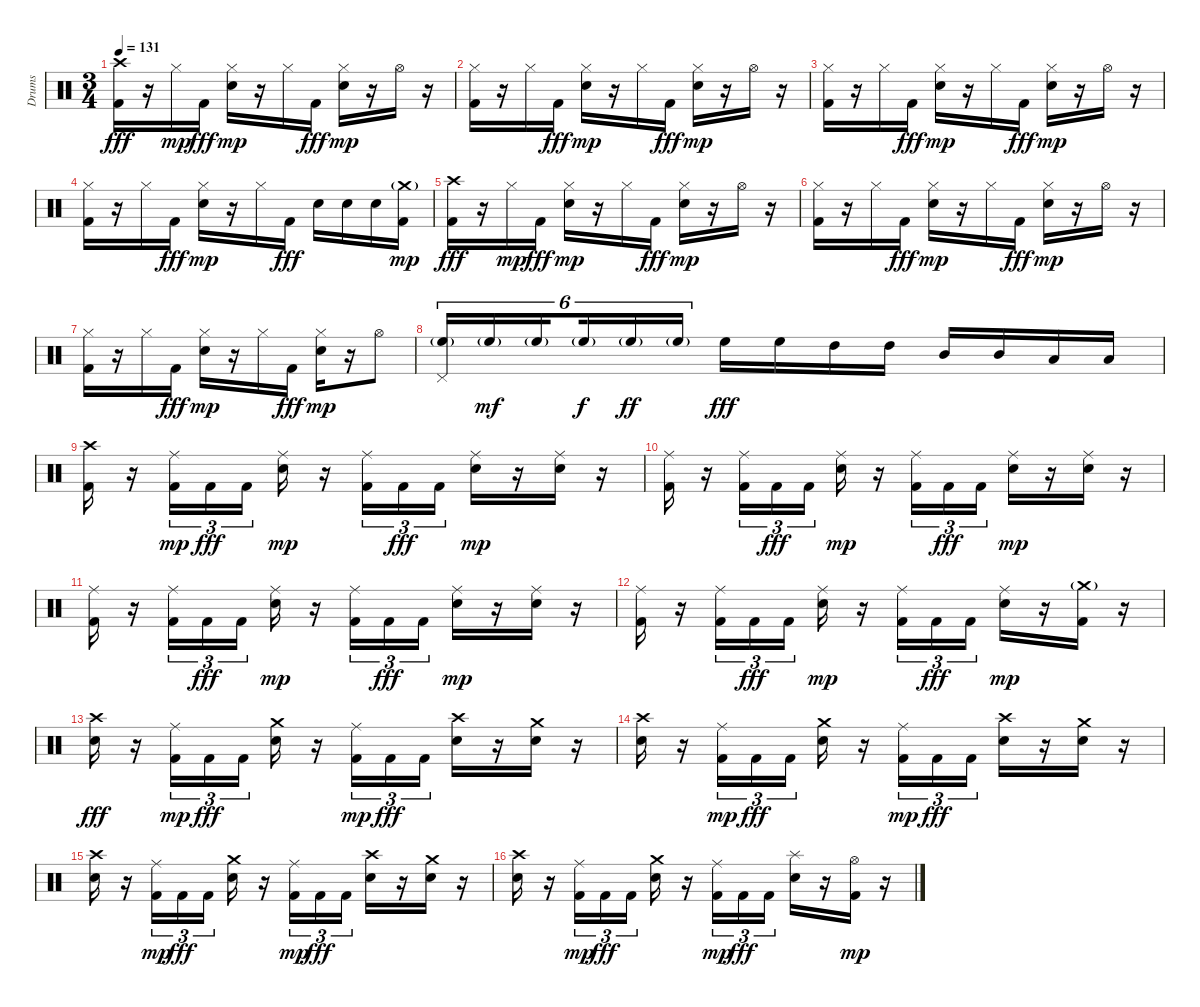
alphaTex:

\track ("Drums" "Drums") {instrument percussion}
\staff {score}
\articulation defaults
\ts (3 4)
\tempo 131
\clef neutral
\ks c
("Kick (hit) 2" "Crash high (hit)").16{dy fff} r.16 "Hi-Hat (closed)".16{dy mp} "Kick (hit) 2".16{dy fff} ("Electric Snare (hit)" "Hi-Hat (closed)").16{dy mp} r.16 "Hi-Hat (closed)".16 "Kick (hit) 2".16{dy fff} ("Electric Snare (hit)" "Hi-Hat (closed)").16{dy mp} r.16 "Hi-Hat (open)".16 r.16 |
("Kick (hit) 2" "Hi-Hat (closed)").16 r.16 "Hi-Hat (closed)".16 "Kick (hit) 2".16{dy fff} ("Electric Snare (hit)" "Hi-Hat (closed)").16{dy mp} r.16 "Hi-Hat (closed)".16 "Kick (hit) 2".16{dy fff} ("Electric Snare (hit)" "Hi-Hat (closed)").16{dy mp} r.16 "Hi-Hat (open)".16 r.16 |
("Kick (hit) 2" "Hi-Hat (closed)").16 r.16 "Hi-Hat (closed)".16 "Kick (hit) 2".16{dy fff} ("Electric Snare (hit)" "Hi-Hat (closed)").16{dy mp} r.16 "Hi-Hat (closed)".16 "Kick (hit) 2".16{dy fff} ("Electric Snare (hit)" "Hi-Hat (closed)").16{dy mp} r.16 "Hi-Hat (open)".16 r.16 |
("Kick (hit) 2" "Hi-Hat (closed)").16 r.16 "Hi-Hat (closed)".16 "Kick (hit) 2".16{dy fff} ("Electric Snare (hit)" "Hi-Hat (closed)").16{dy mp} r.16 "Hi-Hat (closed)".16 "Kick (hit) 2".16{dy fff} "Electric Snare (hit)".16 "Electric Snare (hit)".16 "Electric Snare (hit)".16 ("Kick (hit) 2" "Crash medium (hit)"{g}).16{dy mp} |
("Kick (hit) 2" "Crash high (hit)").16{dy fff} r.16 "Hi-Hat (closed)".16{dy mp} "Kick (hit) 2".16{dy fff} ("Electric Snare (hit)" "Hi-Hat (closed)").16{dy mp} r.16 "Hi-Hat (closed)".16 "Kick (hit) 2".16{dy fff} ("Electric Snare (hit)" "Hi-Hat (closed)").16{dy mp} r.16 "Hi-Hat (open)".16 r.16 |
("Kick (hit) 2" "Hi-Hat (closed)").16 r.16 "Hi-Hat (closed)".16 "Kick (hit) 2".16{dy fff} ("Electric Snare (hit)" "Hi-Hat (closed)").16{dy mp} r.16 "Hi-Hat (closed)".16 "Kick (hit) 2".16{dy fff} ("Electric Snare (hit)" "Hi-Hat (closed)").16{dy mp} r.16 "Hi-Hat (open)".16 r.16 |
("Kick (hit) 2" "Hi-Hat (closed)").16 r.16 "Hi-Hat (closed)".16 "Kick (hit) 2".16{dy fff} ("Electric Snare (hit)" "Hi-Hat (closed)").16{dy mp} r.16 "Hi-Hat (closed)".16 "Kick (hit) 2".16{dy fff} ("Electric Snare (hit)" "Hi-Hat (closed)").16{dy mp} r.16 "Hi-Hat (open)".8 |
("High Floor Tom (hit)"{g} "Pedal Hi-Hat (hit)").16{tu (6 4)} "High Floor Tom (hit)"{g}.16{tu (6 4) dy mf} "High Floor Tom (hit)"{g}.16{tu (6 4) beam splitsecondary} "High Floor Tom (hit)"{g}.16{tu (6 4) dy f} "High Floor Tom (hit)"{g}.16{tu (6 4) dy ff} "High Floor Tom (hit)"{g}.16{tu (6 4)} "High Floor Tom (hit)".16{dy fff} "High Floor Tom (hit)".16 "High Tom (hit)".16 "High Tom (hit)".16 "Mid Tom (hit)".16 "Mid Tom (hit)".16 "Low Tom (hit)".16 "Low Tom (hit)".16 |
("Kick (hit) 2" "Crash high (hit)").16 r.16 ("Kick (hit) 2" "Ride (middle)").16{tu (3 2) dy mp} "Kick (hit) 2".16{tu (3 2) dy fff} "Kick (hit) 2".16{tu (3 2)} ("Electric Snare (hit)" "Ride (middle)").16{dy mp} r.16 ("Kick (hit) 2" "Ride (middle)").16{tu (3 2)} "Kick (hit) 2".16{tu (3 2) dy fff} "Kick (hit) 2".16{tu (3 2)} ("Electric Snare (hit)" "Ride (middle)").16{dy mp} r.16 ("Electric Snare (hit)" "Ride (middle)").16 r.16 |
("Kick (hit) 2" "Ride (middle)").16 r.16 ("Kick (hit) 2" "Ride (middle)").16{tu (3 2)} "Kick (hit) 2".16{tu (3 2) dy fff} "Kick (hit) 2".16{tu (3 2)} ("Electric Snare (hit)" "Ride (middle)").16{dy mp} r.16 ("Kick (hit) 2" "Ride (middle)").16{tu (3 2)} "Kick (hit) 2".16{tu (3 2) dy fff} "Kick (hit) 2".16{tu (3 2)} ("Electric Snare (hit)" "Ride (middle)").16{dy mp} r.16 ("Electric Snare (hit)" "Ride (middle)").16 r.16 |
("Kick (hit) 2" "Ride (middle)").16 r.16 ("Kick (hit) 2" "Ride (middle)").16{tu (3 2)} "Kick (hit) 2".16{tu (3 2) dy fff} "Kick (hit) 2".16{tu (3 2)} ("Electric Snare (hit)" "Ride (middle)").16{dy mp} r.16 ("Kick (hit) 2" "Ride (middle)").16{tu (3 2)} "Kick (hit) 2".16{tu (3 2) dy fff} "Kick (hit) 2".16{tu (3 2)} ("Electric Snare (hit)" "Ride (middle)").16{dy mp} r.16 ("Electric Snare (hit)" "Ride (middle)").16 r.16 |
("Kick (hit) 2" "Ride (middle)").16 r.16 ("Kick (hit) 2" "Ride (middle)").16{tu (3 2)} "Kick (hit) 2".16{tu (3 2) dy fff} "Kick (hit) 2".16{tu (3 2)} ("Electric Snare (hit)" "Ride (middle)").16{dy mp} r.16 ("Kick (hit) 2" "Ride (middle)").16{tu (3 2)} "Kick (hit) 2".16{tu (3 2) dy fff} "Kick (hit) 2".16{tu (3 2)} ("Electric Snare (hit)" "Ride (middle)").16{dy mp} r.16 ("Kick (hit) 2" "Crash medium (hit)"{g}).16 r.16 |
("Electric Snare (hit)" "Crash high (hit)").16{dy fff} r.16 ("Kick (hit) 2" "Ride (middle)").16{tu (3 2) dy mp} "Kick (hit) 2".16{tu (3 2) dy fff} "Kick (hit) 2".16{tu (3 2)} ("Electric Snare (hit)" "Crash medium (hit)").16 r.16 ("Kick (hit) 2" "Ride (middle)").16{tu (3 2) dy mp} "Kick (hit) 2".16{tu (3 2) dy fff} "Kick (hit) 2".16{tu (3 2)} ("Electric Snare (hit)" "Crash high (hit)").16 r.16 ("Electric Snare (hit)" "Crash medium (hit)").16 r.16 |
("Electric Snare (hit)" "Crash high (hit)").16 r.16 ("Kick (hit) 2" "Ride (middle)").16{tu (3 2) dy mp} "Kick (hit) 2".16{tu (3 2) dy fff} "Kick (hit) 2".16{tu (3 2)} ("Electric Snare (hit)" "Crash medium (hit)").16 r.16 ("Kick (hit) 2" "Ride (middle)").16{tu (3 2) dy mp} "Kick (hit) 2".16{tu (3 2) dy fff} "Kick (hit) 2".16{tu (3 2)} ("Electric Snare (hit)" "Crash high (hit)").16 r.16 ("Electric Snare (hit)" "Crash medium (hit)").16 r.16 |
("Electric Snare (hit)" "Crash high (hit)").16 r.16 ("Kick (hit) 2" "Ride (middle)").16{tu (3 2) dy mp} "Kick (hit) 2".16{tu (3 2) dy fff} "Kick (hit) 2".16{tu (3 2)} ("Electric Snare (hit)" "Crash medium (hit)").16 r.16 ("Kick (hit) 2" "Ride (middle)").16{tu (3 2) dy mp} "Kick (hit) 2".16{tu (3 2) dy fff} "Kick (hit) 2".16{tu (3 2)} ("Electric Snare (hit)" "Crash high (hit)").16 r.16 ("Electric Snare (hit)" "Crash medium (hit)").16 r.16 |
("Electric Snare (hit)" "Crash high (hit)").16 r.16 ("Kick (hit) 2" "Ride (middle)").16{tu (3 2) dy mp} "Kick (hit) 2".16{tu (3 2) dy fff} "Kick (hit) 2".16{tu (3 2)} ("Electric Snare (hit)" "Crash medium (hit)").16 r.16 ("Kick (hit) 2" "Ride (middle)").16{tu (3 2) dy mp} "Kick (hit) 2".16{tu (3 2) dy fff} "Kick (hit) 2".16{tu (3 2)} ("Electric Snare (hit)" "Splash (hit)").16 r.16 ("Kick (hit) 2" "Hi-Hat (open)").16{dy mp} r.16
